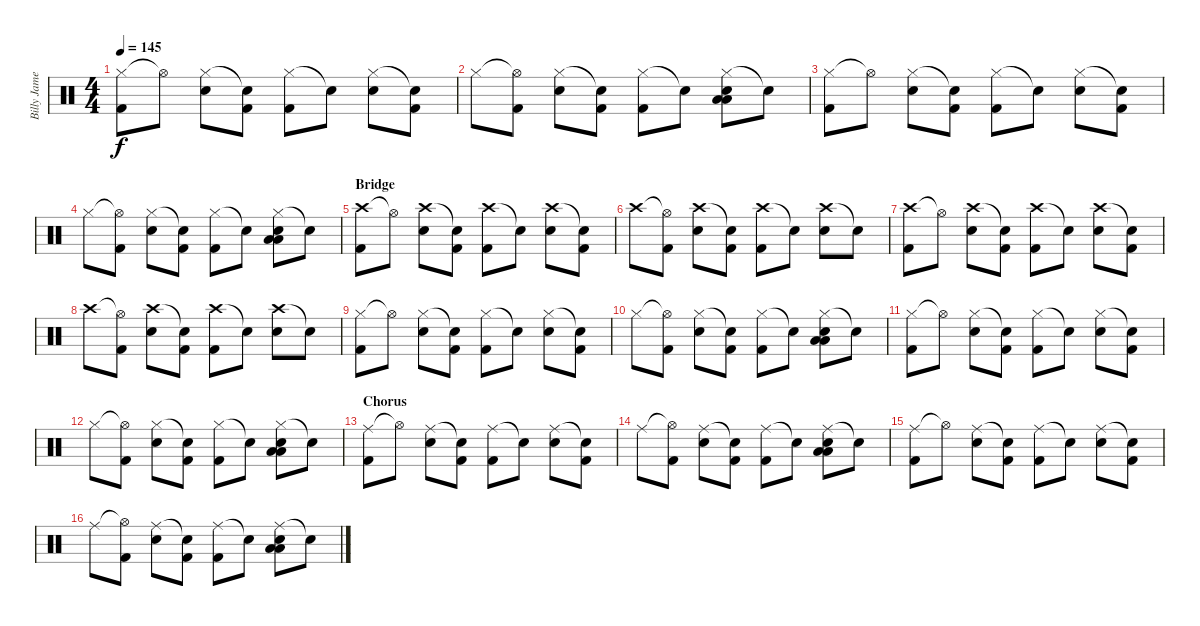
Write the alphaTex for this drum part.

\track ("Billy James (Drums)" "Billy Jame") {instrument percussion}
\staff {score}
\articulation defaults
\ts (4 4)
\tempo 145
\clef neutral
\ks c
("Hi-Hat (closed)" "Kick (hit) 2").8{dy f} "Hi-Hat (open)"{t}.8 ("Hi-Hat (closed)" "Snare (hit) 2").8 ("Snare (hit)"{t} "Kick (hit) 2").8 ("Hi-Hat (closed)" "Kick (hit) 2").8 "Snare (hit)"{t}.8 ("Hi-Hat (closed)" "Snare (hit) 2").8 ("Snare (hit)"{t} "Kick (hit) 2").8 |
"Hi-Hat (closed)".8 ("Hi-Hat (open)"{t} "Kick (hit) 2").8 ("Hi-Hat (closed)" "Snare (hit) 2").8 ("Snare (hit)"{t} "Kick (hit) 2").8 ("Hi-Hat (closed)" "Kick (hit) 2").8 "Snare (hit)"{t}.8 ("Hi-Hat (closed)" "Low Floor Tom (hit)" "Low Floor Tom (hit)" "Snare (hit) 2").8 "Snare (hit)"{t}.8 |
("Hi-Hat (closed)" "Kick (hit) 2").8 "Hi-Hat (open)"{t}.8 ("Hi-Hat (closed)" "Snare (hit) 2").8 ("Snare (hit)"{t} "Kick (hit) 2").8 ("Hi-Hat (closed)" "Kick (hit) 2").8 "Snare (hit)"{t}.8 ("Hi-Hat (closed)" "Snare (hit) 2").8 ("Snare (hit)"{t} "Kick (hit) 2").8 |
"Hi-Hat (closed)".8 ("Hi-Hat (open)"{t} "Kick (hit) 2").8 ("Hi-Hat (closed)" "Snare (hit) 2").8 ("Snare (hit)"{t} "Kick (hit) 2").8 ("Hi-Hat (closed)" "Kick (hit) 2").8 "Snare (hit)"{t}.8 ("Hi-Hat (closed)" "Low Floor Tom (hit)" "Low Floor Tom (hit)" "Snare (hit) 2").8 "Snare (hit)"{t}.8 |
\section ("" "Bridge")
("Crash high (hit)" "Kick (hit) 2").8 "Hi-Hat (open)"{t}.8 ("Crash high (hit)" "Snare (hit) 2").8 ("Snare (hit)"{t} "Kick (hit) 2").8 ("Crash high (hit)" "Kick (hit) 2").8 "Snare (hit)"{t}.8 ("Crash high (hit)" "Snare (hit) 2").8 ("Snare (hit)"{t} "Kick (hit) 2").8 |
"Crash high (hit)".8 ("Hi-Hat (open)"{t} "Kick (hit) 2").8 ("Crash high (hit)" "Snare (hit) 2").8 ("Snare (hit)"{t} "Kick (hit) 2").8 ("Crash high (hit)" "Kick (hit) 2").8 "Snare (hit)"{t}.8 ("Crash high (hit)" "Snare (hit) 2").8 "Snare (hit)"{t}.8 |
("Crash high (hit)" "Kick (hit) 2").8 "Hi-Hat (open)"{t}.8 ("Crash high (hit)" "Snare (hit) 2").8 ("Snare (hit)"{t} "Kick (hit) 2").8 ("Crash high (hit)" "Kick (hit) 2").8 "Snare (hit)"{t}.8 ("Crash high (hit)" "Snare (hit) 2").8 ("Snare (hit)"{t} "Kick (hit) 2").8 |
"Crash high (hit)".8 ("Hi-Hat (open)"{t} "Kick (hit) 2").8 ("Crash high (hit)" "Snare (hit) 2").8 ("Snare (hit)"{t} "Kick (hit) 2").8 ("Crash high (hit)" "Kick (hit) 2").8 "Snare (hit)"{t}.8 ("Crash high (hit)" "Snare (hit) 2").8 "Snare (hit)"{t}.8 |
("Hi-Hat (closed)" "Kick (hit) 2").8 "Hi-Hat (open)"{t}.8 ("Hi-Hat (closed)" "Snare (hit) 2").8 ("Snare (hit)"{t} "Kick (hit) 2").8 ("Hi-Hat (closed)" "Kick (hit) 2").8 "Snare (hit)"{t}.8 ("Hi-Hat (closed)" "Snare (hit) 2").8 ("Snare (hit)"{t} "Kick (hit) 2").8 |
"Hi-Hat (closed)".8 ("Hi-Hat (open)"{t} "Kick (hit) 2").8 ("Hi-Hat (closed)" "Snare (hit) 2").8 ("Snare (hit)"{t} "Kick (hit) 2").8 ("Hi-Hat (closed)" "Kick (hit) 2").8 "Snare (hit)"{t}.8 ("Hi-Hat (closed)" "Low Floor Tom (hit)" "Low Floor Tom (hit)" "Snare (hit) 2").8 "Snare (hit)"{t}.8 |
("Hi-Hat (closed)" "Kick (hit) 2").8 "Hi-Hat (open)"{t}.8 ("Hi-Hat (closed)" "Snare (hit) 2").8 ("Snare (hit)"{t} "Kick (hit) 2").8 ("Hi-Hat (closed)" "Kick (hit) 2").8 "Snare (hit)"{t}.8 ("Hi-Hat (closed)" "Snare (hit) 2").8 ("Snare (hit)"{t} "Kick (hit) 2").8 |
"Hi-Hat (closed)".8 ("Hi-Hat (open)"{t} "Kick (hit) 2").8 ("Hi-Hat (closed)" "Snare (hit) 2").8 ("Snare (hit)"{t} "Kick (hit) 2").8 ("Hi-Hat (closed)" "Kick (hit) 2").8 "Snare (hit)"{t}.8 ("Hi-Hat (closed)" "Low Floor Tom (hit)" "Low Floor Tom (hit)" "Snare (hit) 2").8 "Snare (hit)"{t}.8 |
\section ("" "Chorus")
("Ride (middle)" "Kick (hit) 2").8 "Hi-Hat (open)"{t}.8 ("Ride (middle)" "Snare (hit) 2").8 ("Snare (hit)"{t} "Kick (hit) 2").8 ("Ride (middle)" "Kick (hit) 2").8 "Snare (hit)"{t}.8 ("Ride (middle)" "Snare (hit) 2").8 ("Snare (hit)"{t} "Kick (hit) 2").8 |
"Ride (middle)".8 ("Hi-Hat (open)"{t} "Kick (hit) 2").8 ("Ride (middle)" "Snare (hit) 2").8 ("Snare (hit)"{t} "Kick (hit) 2").8 ("Ride (middle)" "Kick (hit) 2").8 "Snare (hit)"{t}.8 ("Ride (middle)" "Low Floor Tom (hit)" "Low Floor Tom (hit)" "Snare (hit) 2").8 "Snare (hit)"{t}.8 |
("Ride (middle)" "Kick (hit) 2").8 "Hi-Hat (open)"{t}.8 ("Ride (middle)" "Snare (hit) 2").8 ("Snare (hit)"{t} "Kick (hit) 2").8 ("Ride (middle)" "Kick (hit) 2").8 "Snare (hit)"{t}.8 ("Ride (middle)" "Snare (hit) 2").8 ("Snare (hit)"{t} "Kick (hit) 2").8 |
"Ride (middle)".8 ("Hi-Hat (open)"{t} "Kick (hit) 2").8 ("Ride (middle)" "Snare (hit) 2").8 ("Snare (hit)"{t} "Kick (hit) 2").8 ("Ride (middle)" "Kick (hit) 2").8 "Snare (hit)"{t}.8 ("Ride (middle)" "Low Floor Tom (hit)" "Low Floor Tom (hit)" "Snare (hit) 2").8 "Snare (hit)"{t}.8
